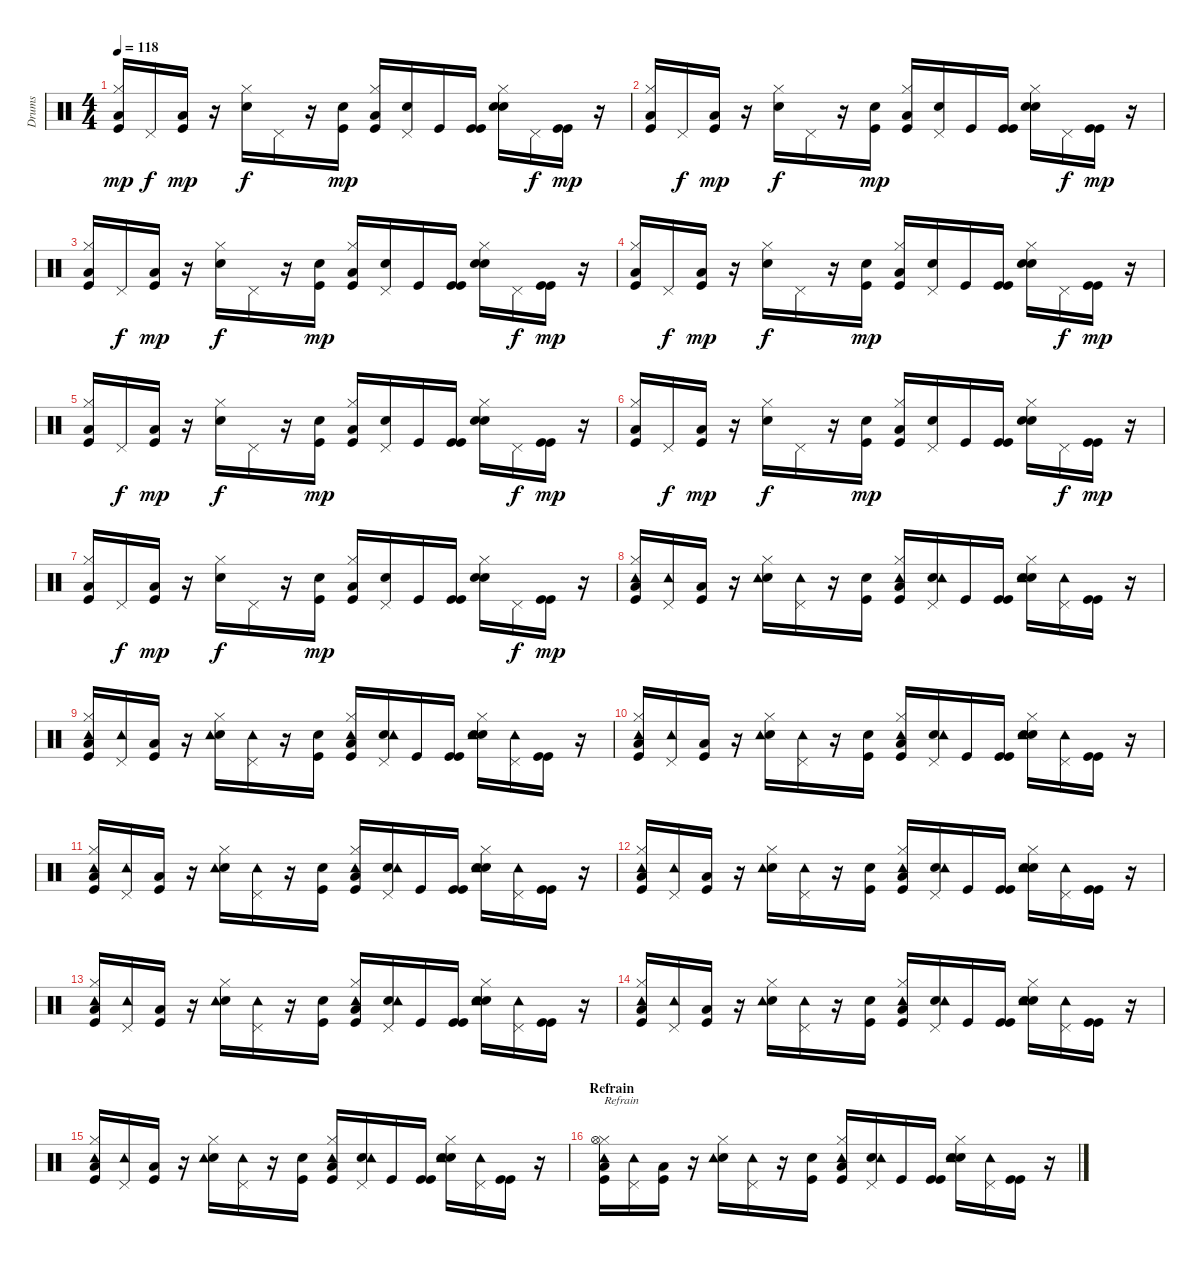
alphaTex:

\track ("Drums" "Drums") {instrument percussion}
\staff {score}
\articulation defaults
\ts (4 4)
\tempo 118
\clef neutral
\ks c
("Low Floor Tom (hit)" "Hi-Hat (closed)" "Kick (hit)").16{dy mp} "Pedal Hi-Hat (hit)".16{dy f} ("Low Floor Tom (hit)" "Kick (hit)").16{dy mp} r.16 ("Electric Snare (hit)" "Hi-Hat (closed)").16{dy f} "Pedal Hi-Hat (hit)".16 r.16 ("Kick (hit)" "Electric Snare (hit)").16{dy mp} ("Low Floor Tom (hit)" "Hi-Hat (closed)" "Kick (hit)").16 ("Pedal Hi-Hat (hit)" "Electric Snare (hit)").16 "Kick (hit)".16 ("Kick (hit)" "Kick (hit)").16 ("Electric Snare (hit)" "Hi-Hat (closed)" "Electric Snare (hit)").16 "Pedal Hi-Hat (hit)".16{dy f} ("Kick (hit)" "Kick (hit)").16{dy mp} r.16 |
("Low Floor Tom (hit)" "Hi-Hat (closed)" "Kick (hit)").16 "Pedal Hi-Hat (hit)".16{dy f} ("Low Floor Tom (hit)" "Kick (hit)").16{dy mp} r.16 ("Electric Snare (hit)" "Hi-Hat (closed)").16{dy f} "Pedal Hi-Hat (hit)".16 r.16 ("Kick (hit)" "Electric Snare (hit)").16{dy mp} ("Low Floor Tom (hit)" "Hi-Hat (closed)" "Kick (hit)").16 ("Pedal Hi-Hat (hit)" "Electric Snare (hit)").16 "Kick (hit)".16 ("Kick (hit)" "Kick (hit)").16 ("Electric Snare (hit)" "Hi-Hat (closed)" "Electric Snare (hit)").16 "Pedal Hi-Hat (hit)".16{dy f} ("Kick (hit)" "Kick (hit)").16{dy mp} r.16 |
("Low Floor Tom (hit)" "Hi-Hat (closed)" "Kick (hit)").16 "Pedal Hi-Hat (hit)".16{dy f} ("Low Floor Tom (hit)" "Kick (hit)").16{dy mp} r.16 ("Electric Snare (hit)" "Hi-Hat (closed)").16{dy f} "Pedal Hi-Hat (hit)".16 r.16 ("Kick (hit)" "Electric Snare (hit)").16{dy mp} ("Low Floor Tom (hit)" "Hi-Hat (closed)" "Kick (hit)").16 ("Pedal Hi-Hat (hit)" "Electric Snare (hit)").16 "Kick (hit)".16 ("Kick (hit)" "Kick (hit)").16 ("Electric Snare (hit)" "Hi-Hat (closed)" "Electric Snare (hit)").16 "Pedal Hi-Hat (hit)".16{dy f} ("Kick (hit)" "Kick (hit)").16{dy mp} r.16 |
("Low Floor Tom (hit)" "Hi-Hat (closed)" "Kick (hit)").16 "Pedal Hi-Hat (hit)".16{dy f} ("Low Floor Tom (hit)" "Kick (hit)").16{dy mp} r.16 ("Electric Snare (hit)" "Hi-Hat (closed)").16{dy f} "Pedal Hi-Hat (hit)".16 r.16 ("Kick (hit)" "Electric Snare (hit)").16{dy mp} ("Low Floor Tom (hit)" "Hi-Hat (closed)" "Kick (hit)").16 ("Pedal Hi-Hat (hit)" "Electric Snare (hit)").16 "Kick (hit)".16 ("Kick (hit)" "Kick (hit)").16 ("Electric Snare (hit)" "Hi-Hat (closed)" "Electric Snare (hit)").16 "Pedal Hi-Hat (hit)".16{dy f} ("Kick (hit)" "Kick (hit)").16{dy mp} r.16 |
("Low Floor Tom (hit)" "Hi-Hat (closed)" "Kick (hit)").16 "Pedal Hi-Hat (hit)".16{dy f} ("Low Floor Tom (hit)" "Kick (hit)").16{dy mp} r.16 ("Electric Snare (hit)" "Hi-Hat (closed)").16{dy f} "Pedal Hi-Hat (hit)".16 r.16 ("Kick (hit)" "Electric Snare (hit)").16{dy mp} ("Low Floor Tom (hit)" "Hi-Hat (closed)" "Kick (hit)").16 ("Pedal Hi-Hat (hit)" "Electric Snare (hit)").16 "Kick (hit)".16 ("Kick (hit)" "Kick (hit)").16 ("Electric Snare (hit)" "Hi-Hat (closed)" "Electric Snare (hit)").16 "Pedal Hi-Hat (hit)".16{dy f} ("Kick (hit)" "Kick (hit)").16{dy mp} r.16 |
("Low Floor Tom (hit)" "Hi-Hat (closed)" "Kick (hit)").16 "Pedal Hi-Hat (hit)".16{dy f} ("Low Floor Tom (hit)" "Kick (hit)").16{dy mp} r.16 ("Electric Snare (hit)" "Hi-Hat (closed)").16{dy f} "Pedal Hi-Hat (hit)".16 r.16 ("Kick (hit)" "Electric Snare (hit)").16{dy mp} ("Low Floor Tom (hit)" "Hi-Hat (closed)" "Kick (hit)").16 ("Pedal Hi-Hat (hit)" "Electric Snare (hit)").16 "Kick (hit)".16 ("Kick (hit)" "Kick (hit)").16 ("Electric Snare (hit)" "Hi-Hat (closed)" "Electric Snare (hit)").16 "Pedal Hi-Hat (hit)".16{dy f} ("Kick (hit)" "Kick (hit)").16{dy mp} r.16 |
("Low Floor Tom (hit)" "Hi-Hat (closed)" "Kick (hit)").16 "Pedal Hi-Hat (hit)".16{dy f} ("Low Floor Tom (hit)" "Kick (hit)").16{dy mp} r.16 ("Electric Snare (hit)" "Hi-Hat (closed)").16{dy f} "Pedal Hi-Hat (hit)".16 r.16 ("Kick (hit)" "Electric Snare (hit)").16{dy mp} ("Low Floor Tom (hit)" "Hi-Hat (closed)" "Kick (hit)").16 ("Pedal Hi-Hat (hit)" "Electric Snare (hit)").16 "Kick (hit)".16 ("Kick (hit)" "Kick (hit)").16 ("Electric Snare (hit)" "Hi-Hat (closed)" "Electric Snare (hit)").16 "Pedal Hi-Hat (hit)".16{dy f} ("Kick (hit)" "Kick (hit)").16{dy mp} r.16 |
("Low Floor Tom (hit)" "Hi-Hat (closed)" "Kick (hit)" "Tambourine (hit)").16 ("Pedal Hi-Hat (hit)" "Tambourine (hit)").16 ("Low Floor Tom (hit)" "Kick (hit)").16 r.16 ("Electric Snare (hit)" "Hi-Hat (closed)" "Tambourine (hit)").16 ("Pedal Hi-Hat (hit)" "Tambourine (hit)").16 r.16 ("Kick (hit)" "Electric Snare (hit)").16 ("Low Floor Tom (hit)" "Hi-Hat (closed)" "Kick (hit)" "Tambourine (hit)").16 ("Pedal Hi-Hat (hit)" "Electric Snare (hit)" "Tambourine (hit)").16 "Kick (hit)".16 ("Kick (hit)" "Kick (hit)").16 ("Electric Snare (hit)" "Hi-Hat (closed)" "Electric Snare (hit)" "Tambourine (hit)").16 ("Pedal Hi-Hat (hit)" "Tambourine (hit)").16 ("Kick (hit)" "Kick (hit)").16 r.16 |
("Low Floor Tom (hit)" "Hi-Hat (closed)" "Kick (hit)" "Tambourine (hit)").16 ("Pedal Hi-Hat (hit)" "Tambourine (hit)").16 ("Low Floor Tom (hit)" "Kick (hit)").16 r.16 ("Electric Snare (hit)" "Hi-Hat (closed)" "Tambourine (hit)").16 ("Pedal Hi-Hat (hit)" "Tambourine (hit)").16 r.16 ("Kick (hit)" "Electric Snare (hit)").16 ("Low Floor Tom (hit)" "Hi-Hat (closed)" "Kick (hit)" "Tambourine (hit)").16 ("Pedal Hi-Hat (hit)" "Electric Snare (hit)" "Tambourine (hit)").16 "Kick (hit)".16 ("Kick (hit)" "Kick (hit)").16 ("Electric Snare (hit)" "Hi-Hat (closed)" "Electric Snare (hit)" "Tambourine (hit)").16 ("Pedal Hi-Hat (hit)" "Tambourine (hit)").16 ("Kick (hit)" "Kick (hit)").16 r.16 |
("Low Floor Tom (hit)" "Hi-Hat (closed)" "Kick (hit)" "Tambourine (hit)").16 ("Pedal Hi-Hat (hit)" "Tambourine (hit)").16 ("Low Floor Tom (hit)" "Kick (hit)").16 r.16 ("Electric Snare (hit)" "Hi-Hat (closed)" "Tambourine (hit)").16 ("Pedal Hi-Hat (hit)" "Tambourine (hit)").16 r.16 ("Kick (hit)" "Electric Snare (hit)").16 ("Low Floor Tom (hit)" "Hi-Hat (closed)" "Kick (hit)" "Tambourine (hit)").16 ("Pedal Hi-Hat (hit)" "Electric Snare (hit)" "Tambourine (hit)").16 "Kick (hit)".16 ("Kick (hit)" "Kick (hit)").16 ("Electric Snare (hit)" "Hi-Hat (closed)" "Electric Snare (hit)" "Tambourine (hit)").16 ("Pedal Hi-Hat (hit)" "Tambourine (hit)").16 ("Kick (hit)" "Kick (hit)").16 r.16 |
("Low Floor Tom (hit)" "Hi-Hat (closed)" "Kick (hit)" "Tambourine (hit)").16 ("Pedal Hi-Hat (hit)" "Tambourine (hit)").16 ("Low Floor Tom (hit)" "Kick (hit)").16 r.16 ("Electric Snare (hit)" "Hi-Hat (closed)" "Tambourine (hit)").16 ("Pedal Hi-Hat (hit)" "Tambourine (hit)").16 r.16 ("Kick (hit)" "Electric Snare (hit)").16 ("Low Floor Tom (hit)" "Hi-Hat (closed)" "Kick (hit)" "Tambourine (hit)").16 ("Pedal Hi-Hat (hit)" "Electric Snare (hit)" "Tambourine (hit)").16 "Kick (hit)".16 ("Kick (hit)" "Kick (hit)").16 ("Electric Snare (hit)" "Hi-Hat (closed)" "Electric Snare (hit)" "Tambourine (hit)").16 ("Pedal Hi-Hat (hit)" "Tambourine (hit)").16 ("Kick (hit)" "Kick (hit)").16 r.16 |
("Low Floor Tom (hit)" "Hi-Hat (closed)" "Kick (hit)" "Tambourine (hit)").16 ("Pedal Hi-Hat (hit)" "Tambourine (hit)").16 ("Low Floor Tom (hit)" "Kick (hit)").16 r.16 ("Electric Snare (hit)" "Hi-Hat (closed)" "Tambourine (hit)").16 ("Pedal Hi-Hat (hit)" "Tambourine (hit)").16 r.16 ("Kick (hit)" "Electric Snare (hit)").16 ("Low Floor Tom (hit)" "Hi-Hat (closed)" "Kick (hit)" "Tambourine (hit)").16 ("Pedal Hi-Hat (hit)" "Electric Snare (hit)" "Tambourine (hit)").16 "Kick (hit)".16 ("Kick (hit)" "Kick (hit)").16 ("Electric Snare (hit)" "Hi-Hat (closed)" "Electric Snare (hit)" "Tambourine (hit)").16 ("Pedal Hi-Hat (hit)" "Tambourine (hit)").16 ("Kick (hit)" "Kick (hit)").16 r.16 |
("Low Floor Tom (hit)" "Hi-Hat (closed)" "Kick (hit)" "Tambourine (hit)").16 ("Pedal Hi-Hat (hit)" "Tambourine (hit)").16 ("Low Floor Tom (hit)" "Kick (hit)").16 r.16 ("Electric Snare (hit)" "Hi-Hat (closed)" "Tambourine (hit)").16 ("Pedal Hi-Hat (hit)" "Tambourine (hit)").16 r.16 ("Kick (hit)" "Electric Snare (hit)").16 ("Low Floor Tom (hit)" "Hi-Hat (closed)" "Kick (hit)" "Tambourine (hit)").16 ("Pedal Hi-Hat (hit)" "Electric Snare (hit)" "Tambourine (hit)").16 "Kick (hit)".16 ("Kick (hit)" "Kick (hit)").16 ("Electric Snare (hit)" "Hi-Hat (closed)" "Electric Snare (hit)" "Tambourine (hit)").16 ("Pedal Hi-Hat (hit)" "Tambourine (hit)").16 ("Kick (hit)" "Kick (hit)").16 r.16 |
("Low Floor Tom (hit)" "Hi-Hat (closed)" "Kick (hit)" "Tambourine (hit)").16 ("Pedal Hi-Hat (hit)" "Tambourine (hit)").16 ("Low Floor Tom (hit)" "Kick (hit)").16 r.16 ("Electric Snare (hit)" "Hi-Hat (closed)" "Tambourine (hit)").16 ("Pedal Hi-Hat (hit)" "Tambourine (hit)").16 r.16 ("Kick (hit)" "Electric Snare (hit)").16 ("Low Floor Tom (hit)" "Hi-Hat (closed)" "Kick (hit)" "Tambourine (hit)").16 ("Pedal Hi-Hat (hit)" "Electric Snare (hit)" "Tambourine (hit)").16 "Kick (hit)".16 ("Kick (hit)" "Kick (hit)").16 ("Electric Snare (hit)" "Hi-Hat (closed)" "Electric Snare (hit)" "Tambourine (hit)").16 ("Pedal Hi-Hat (hit)" "Tambourine (hit)").16 ("Kick (hit)" "Kick (hit)").16 r.16 |
("Low Floor Tom (hit)" "Hi-Hat (closed)" "Kick (hit)" "Tambourine (hit)").16 ("Pedal Hi-Hat (hit)" "Tambourine (hit)").16 ("Low Floor Tom (hit)" "Kick (hit)").16 r.16 ("Electric Snare (hit)" "Hi-Hat (closed)" "Tambourine (hit)").16 ("Pedal Hi-Hat (hit)" "Tambourine (hit)").16 r.16 ("Kick (hit)" "Electric Snare (hit)").16 ("Low Floor Tom (hit)" "Hi-Hat (closed)" "Kick (hit)" "Tambourine (hit)").16 ("Pedal Hi-Hat (hit)" "Electric Snare (hit)" "Tambourine (hit)").16 "Kick (hit)".16 ("Kick (hit)" "Kick (hit)").16 ("Electric Snare (hit)" "Hi-Hat (closed)" "Electric Snare (hit)" "Tambourine (hit)").16 ("Pedal Hi-Hat (hit)" "Tambourine (hit)").16 ("Kick (hit)" "Kick (hit)").16 r.16 |
\section ("" "Refrain")
("Low Floor Tom (hit)" "Hi-Hat (closed)" "Kick (hit)" "Tambourine (hit)" "Hi-Hat (open)").16{txt "Refrain"} ("Pedal Hi-Hat (hit)" "Tambourine (hit)").16 ("Low Floor Tom (hit)" "Kick (hit)").16 r.16 ("Electric Snare (hit)" "Hi-Hat (closed)" "Tambourine (hit)").16 ("Pedal Hi-Hat (hit)" "Tambourine (hit)").16 r.16 ("Kick (hit)" "Electric Snare (hit)").16 ("Low Floor Tom (hit)" "Hi-Hat (closed)" "Kick (hit)" "Tambourine (hit)").16 ("Pedal Hi-Hat (hit)" "Electric Snare (hit)" "Tambourine (hit)").16 "Kick (hit)".16 ("Kick (hit)" "Kick (hit)").16 ("Electric Snare (hit)" "Hi-Hat (closed)" "Electric Snare (hit)" "Tambourine (hit)").16 ("Pedal Hi-Hat (hit)" "Tambourine (hit)").16 ("Kick (hit)" "Kick (hit)").16 r.16
